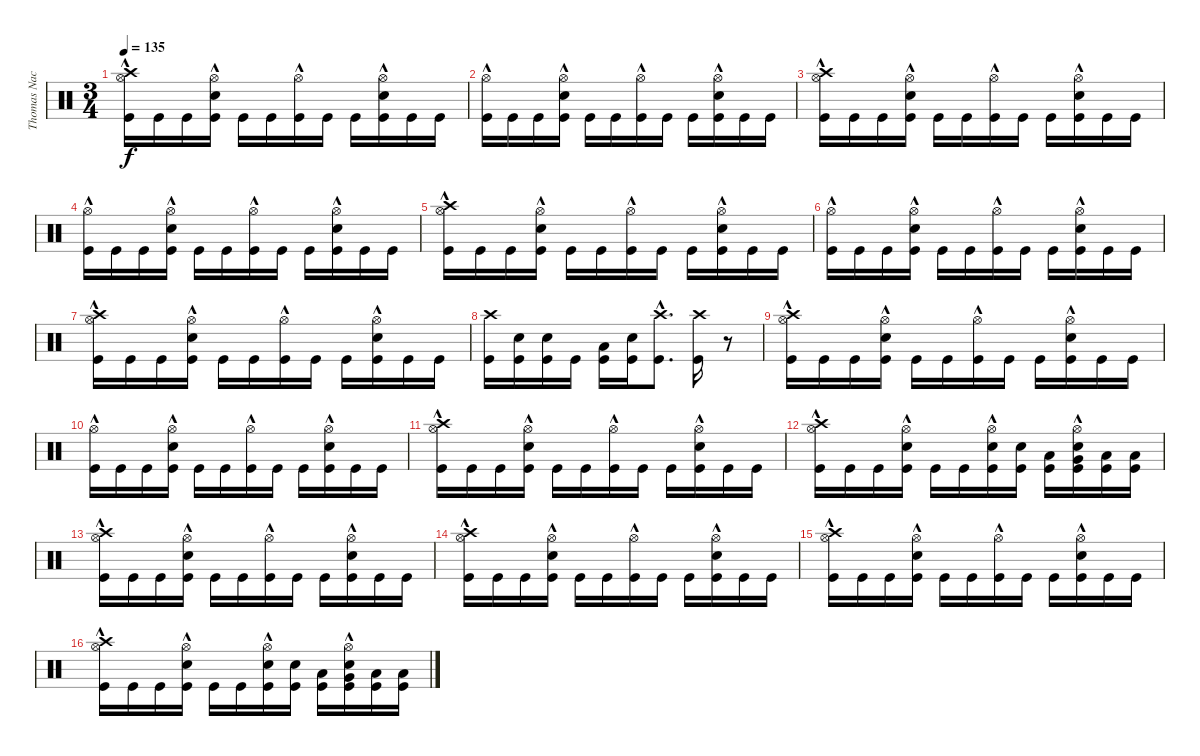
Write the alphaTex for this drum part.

\track ("Thomas Nack" "Thomas Nac") {instrument percussion}
\staff {score}
\articulation defaults
\ts (3 4)
\tempo 135
\clef neutral
\ks c
("Crash high (hit)" "Hi-Hat (open)"{hac} "Kick (hit)").16{dy f} "Kick (hit)".16 "Kick (hit)".16 ("Hi-Hat (open)"{hac} "Kick (hit)" "Electric Snare (hit)").16 "Kick (hit)".16 "Kick (hit)".16 ("Hi-Hat (open)"{hac} "Kick (hit)").16 "Kick (hit)".16 "Kick (hit)".16 ("Hi-Hat (open)"{hac} "Kick (hit)" "Electric Snare (hit)").16 "Kick (hit)".16 "Kick (hit)".16 |
("Hi-Hat (open)"{hac} "Kick (hit)").16 "Kick (hit)".16 "Kick (hit)".16 ("Hi-Hat (open)"{hac} "Kick (hit)" "Electric Snare (hit)").16 "Kick (hit)".16 "Kick (hit)".16 ("Hi-Hat (open)"{hac} "Kick (hit)").16 "Kick (hit)".16 "Kick (hit)".16 ("Hi-Hat (open)"{hac} "Kick (hit)" "Electric Snare (hit)").16 "Kick (hit)".16 "Kick (hit)".16 |
("Crash high (hit)" "Hi-Hat (open)"{hac} "Kick (hit)").16 "Kick (hit)".16 "Kick (hit)".16 ("Hi-Hat (open)"{hac} "Kick (hit)" "Electric Snare (hit)").16 "Kick (hit)".16 "Kick (hit)".16 ("Hi-Hat (open)"{hac} "Kick (hit)").16 "Kick (hit)".16 "Kick (hit)".16 ("Hi-Hat (open)"{hac} "Kick (hit)" "Electric Snare (hit)").16 "Kick (hit)".16 "Kick (hit)".16 |
("Hi-Hat (open)"{hac} "Kick (hit)").16 "Kick (hit)".16 "Kick (hit)".16 ("Hi-Hat (open)"{hac} "Kick (hit)" "Electric Snare (hit)").16 "Kick (hit)".16 "Kick (hit)".16 ("Hi-Hat (open)"{hac} "Kick (hit)").16 "Kick (hit)".16 "Kick (hit)".16 ("Hi-Hat (open)"{hac} "Kick (hit)" "Electric Snare (hit)").16 "Kick (hit)".16 "Kick (hit)".16 |
("Crash high (hit)" "Hi-Hat (open)"{hac} "Kick (hit)").16 "Kick (hit)".16 "Kick (hit)".16 ("Hi-Hat (open)"{hac} "Kick (hit)" "Electric Snare (hit)").16 "Kick (hit)".16 "Kick (hit)".16 ("Hi-Hat (open)"{hac} "Kick (hit)").16 "Kick (hit)".16 "Kick (hit)".16 ("Hi-Hat (open)"{hac} "Kick (hit)" "Electric Snare (hit)").16 "Kick (hit)".16 "Kick (hit)".16 |
("Hi-Hat (open)"{hac} "Kick (hit)").16 "Kick (hit)".16 "Kick (hit)".16 ("Hi-Hat (open)"{hac} "Kick (hit)" "Electric Snare (hit)").16 "Kick (hit)".16 "Kick (hit)".16 ("Hi-Hat (open)"{hac} "Kick (hit)").16 "Kick (hit)".16 "Kick (hit)".16 ("Hi-Hat (open)"{hac} "Kick (hit)" "Electric Snare (hit)").16 "Kick (hit)".16 "Kick (hit)".16 |
("Crash high (hit)" "Hi-Hat (open)"{hac} "Kick (hit)").16 "Kick (hit)".16 "Kick (hit)".16 ("Hi-Hat (open)"{hac} "Kick (hit)" "Electric Snare (hit)").16 "Kick (hit)".16 "Kick (hit)".16 ("Hi-Hat (open)"{hac} "Kick (hit)").16 "Kick (hit)".16 "Kick (hit)".16 ("Hi-Hat (open)"{hac} "Kick (hit)" "Electric Snare (hit)").16 "Kick (hit)".16 "Kick (hit)".16 |
("Crash high (hit)" "Kick (hit)").16 ("Kick (hit)" "Snare (hit) 2").16 ("Kick (hit)" "Snare (hit) 2").16 "Kick (hit)".16 ("Kick (hit)" "Low Floor Tom (hit)").16 ("Kick (hit)" "Electric Snare (hit)").16 ("Crash high (hit)"{hac} "Kick (hit)").8{d} ("Crash high (hit)" "Kick (hit)").16 r.8 |
("Crash high (hit)" "Hi-Hat (open)"{hac} "Kick (hit)").16 "Kick (hit)".16 "Kick (hit)".16 ("Hi-Hat (open)"{hac} "Kick (hit)" "Electric Snare (hit)").16 "Kick (hit)".16 "Kick (hit)".16 ("Hi-Hat (open)"{hac} "Kick (hit)").16 "Kick (hit)".16 "Kick (hit)".16 ("Hi-Hat (open)"{hac} "Kick (hit)" "Electric Snare (hit)").16 "Kick (hit)".16 "Kick (hit)".16 |
("Hi-Hat (open)"{hac} "Kick (hit)").16 "Kick (hit)".16 "Kick (hit)".16 ("Hi-Hat (open)"{hac} "Kick (hit)" "Electric Snare (hit)").16 "Kick (hit)".16 "Kick (hit)".16 ("Hi-Hat (open)"{hac} "Kick (hit)").16 "Kick (hit)".16 "Kick (hit)".16 ("Hi-Hat (open)"{hac} "Kick (hit)" "Electric Snare (hit)").16 "Kick (hit)".16 "Kick (hit)".16 |
("Crash high (hit)" "Hi-Hat (open)"{hac} "Kick (hit)").16 "Kick (hit)".16 "Kick (hit)".16 ("Hi-Hat (open)"{hac} "Kick (hit)" "Electric Snare (hit)").16 "Kick (hit)".16 "Kick (hit)".16 ("Hi-Hat (open)"{hac} "Kick (hit)").16 "Kick (hit)".16 "Kick (hit)".16 ("Hi-Hat (open)"{hac} "Kick (hit)" "Electric Snare (hit)").16 "Kick (hit)".16 "Kick (hit)".16 |
("Crash high (hit)" "Hi-Hat (open)"{hac} "Kick (hit)").16 "Kick (hit)".16 "Kick (hit)".16 ("Hi-Hat (open)"{hac} "Kick (hit)" "Electric Snare (hit)").16 "Kick (hit)".16 "Kick (hit)".16 ("Snare (hit) 2" "Hi-Hat (open)"{hac} "Kick (hit)").16 ("Snare (hit) 2" "Kick (hit)").16 ("Low Tom (hit)" "Kick (hit)").16 ("Very Low Tom (hit)" "Hi-Hat (open)"{hac} "Kick (hit)" "Electric Snare (hit)").16 ("Low Floor Tom (hit)" "Kick (hit)").16 ("Low Floor Tom (hit)" "Kick (hit)").16 |
("Crash high (hit)" "Hi-Hat (open)"{hac} "Kick (hit)").16 "Kick (hit)".16 "Kick (hit)".16 ("Hi-Hat (open)"{hac} "Kick (hit)" "Electric Snare (hit)").16 "Kick (hit)".16 "Kick (hit)".16 ("Hi-Hat (open)"{hac} "Kick (hit)").16 "Kick (hit)".16 "Kick (hit)".16 ("Hi-Hat (open)"{hac} "Kick (hit)" "Electric Snare (hit)").16 "Kick (hit)".16 "Kick (hit)".16 |
("Crash high (hit)" "Hi-Hat (open)"{hac} "Kick (hit)").16 "Kick (hit)".16 "Kick (hit)".16 ("Hi-Hat (open)"{hac} "Kick (hit)" "Electric Snare (hit)").16 "Kick (hit)".16 "Kick (hit)".16 ("Hi-Hat (open)"{hac} "Kick (hit)").16 "Kick (hit)".16 "Kick (hit)".16 ("Hi-Hat (open)"{hac} "Kick (hit)" "Electric Snare (hit)").16 "Kick (hit)".16 "Kick (hit)".16 |
("Crash high (hit)" "Hi-Hat (open)"{hac} "Kick (hit)").16 "Kick (hit)".16 "Kick (hit)".16 ("Hi-Hat (open)"{hac} "Kick (hit)" "Electric Snare (hit)").16 "Kick (hit)".16 "Kick (hit)".16 ("Hi-Hat (open)"{hac} "Kick (hit)").16 "Kick (hit)".16 "Kick (hit)".16 ("Hi-Hat (open)"{hac} "Kick (hit)" "Electric Snare (hit)").16 "Kick (hit)".16 "Kick (hit)".16 |
("Crash high (hit)" "Hi-Hat (open)"{hac} "Kick (hit)").16 "Kick (hit)".16 "Kick (hit)".16 ("Hi-Hat (open)"{hac} "Kick (hit)" "Electric Snare (hit)").16 "Kick (hit)".16 "Kick (hit)".16 ("Snare (hit) 2" "Hi-Hat (open)"{hac} "Kick (hit)").16 ("Snare (hit) 2" "Kick (hit)").16 ("Low Tom (hit)" "Kick (hit)").16 ("Very Low Tom (hit)" "Hi-Hat (open)"{hac} "Kick (hit)" "Electric Snare (hit)").16 ("Low Floor Tom (hit)" "Kick (hit)").16 ("Low Floor Tom (hit)" "Kick (hit)").16
